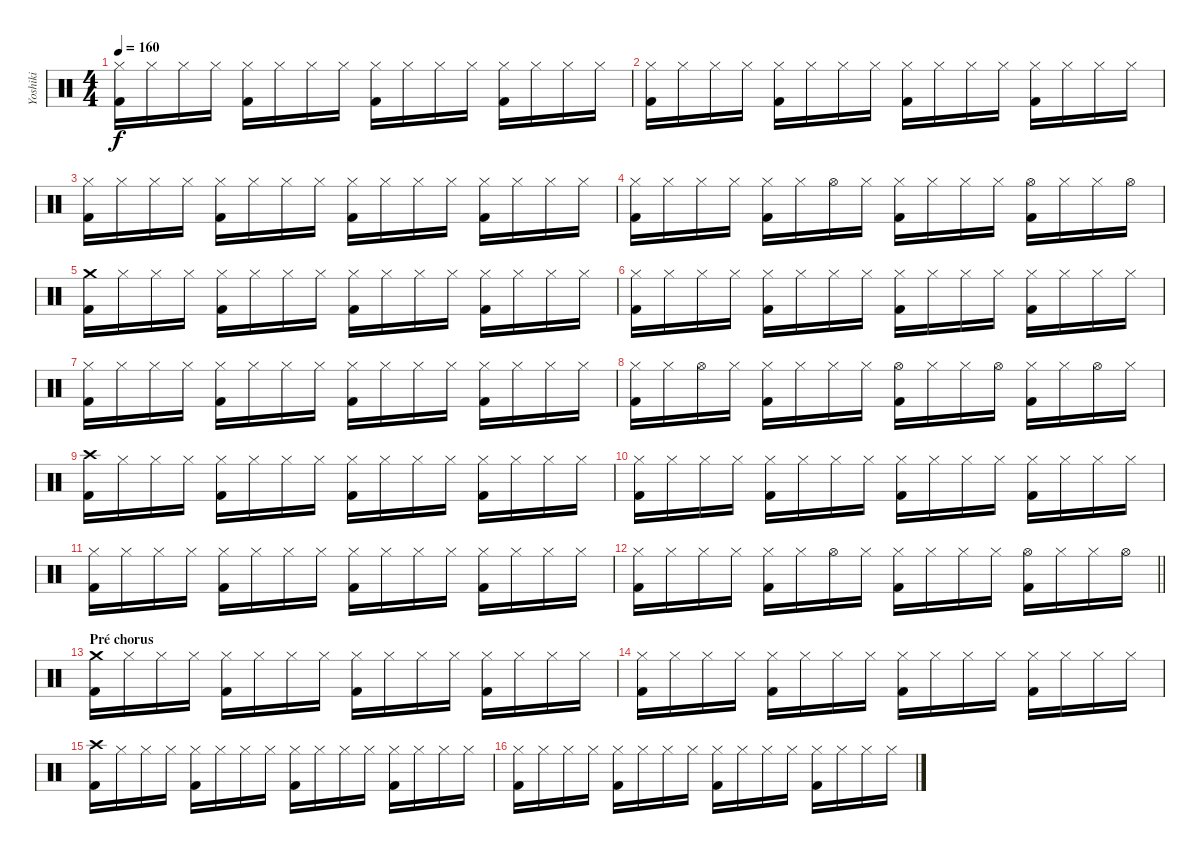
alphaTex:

\track ("Yoshiki" "Yoshiki") {instrument percussion}
\staff {score}
\articulation defaults
\ts (4 4)
\tempo 160
\clef neutral
\ks c
("Hi-Hat (closed)" "Kick (hit) 2").16{dy f} "Hi-Hat (closed)".16 "Hi-Hat (closed)".16 "Hi-Hat (closed)".16 ("Hi-Hat (closed)" "Kick (hit) 2").16 "Hi-Hat (closed)".16 "Hi-Hat (closed)".16 "Hi-Hat (closed)".16 ("Hi-Hat (closed)" "Kick (hit) 2").16 "Hi-Hat (closed)".16 "Hi-Hat (closed)".16 "Hi-Hat (closed)".16 ("Hi-Hat (closed)" "Kick (hit) 2").16 "Hi-Hat (closed)".16 "Hi-Hat (closed)".16 "Hi-Hat (closed)".16 |
("Hi-Hat (closed)" "Kick (hit) 2").16 "Hi-Hat (closed)".16 "Hi-Hat (closed)".16 "Hi-Hat (closed)".16 ("Hi-Hat (closed)" "Kick (hit) 2").16 "Hi-Hat (closed)".16 "Hi-Hat (closed)".16 "Hi-Hat (closed)".16 ("Hi-Hat (closed)" "Kick (hit) 2").16 "Hi-Hat (closed)".16 "Hi-Hat (closed)".16 "Hi-Hat (closed)".16 ("Hi-Hat (closed)" "Kick (hit) 2").16 "Hi-Hat (closed)".16 "Hi-Hat (closed)".16 "Hi-Hat (closed)".16 |
("Hi-Hat (closed)" "Kick (hit) 2").16 "Hi-Hat (closed)".16 "Hi-Hat (closed)".16 "Hi-Hat (closed)".16 ("Hi-Hat (closed)" "Kick (hit) 2").16 "Hi-Hat (closed)".16 "Hi-Hat (closed)".16 "Hi-Hat (closed)".16 ("Hi-Hat (closed)" "Kick (hit) 2").16 "Hi-Hat (closed)".16 "Hi-Hat (closed)".16 "Hi-Hat (closed)".16 ("Hi-Hat (closed)" "Kick (hit) 2").16 "Hi-Hat (closed)".16 "Hi-Hat (closed)".16 "Hi-Hat (closed)".16 |
("Hi-Hat (closed)" "Kick (hit) 2").16 "Hi-Hat (closed)".16 "Hi-Hat (closed)".16 "Hi-Hat (closed)".16 ("Hi-Hat (closed)" "Kick (hit) 2").16 "Hi-Hat (closed)".16 "Hi-Hat (open)".16 "Hi-Hat (closed)".16 ("Hi-Hat (closed)" "Kick (hit) 2").16 "Hi-Hat (closed)".16 "Hi-Hat (closed)".16 "Hi-Hat (closed)".16 ("Hi-Hat (open)" "Kick (hit) 2").16 "Hi-Hat (closed)".16 "Hi-Hat (closed)".16 "Hi-Hat (open)".16 |
("Crash medium (hit)" "Kick (hit) 2").16 "Hi-Hat (closed)".16 "Hi-Hat (closed)".16 "Hi-Hat (closed)".16 ("Hi-Hat (closed)" "Kick (hit) 2").16 "Hi-Hat (closed)".16 "Hi-Hat (closed)".16 "Hi-Hat (closed)".16 ("Hi-Hat (closed)" "Kick (hit) 2").16 "Hi-Hat (closed)".16 "Hi-Hat (closed)".16 "Hi-Hat (closed)".16 ("Hi-Hat (closed)" "Kick (hit) 2").16 "Hi-Hat (closed)".16 "Hi-Hat (closed)".16 "Hi-Hat (closed)".16 |
("Hi-Hat (closed)" "Kick (hit) 2").16 "Hi-Hat (closed)".16 "Hi-Hat (closed)".16 "Hi-Hat (closed)".16 ("Hi-Hat (closed)" "Kick (hit) 2").16 "Hi-Hat (closed)".16 "Hi-Hat (closed)".16 "Hi-Hat (closed)".16 ("Hi-Hat (closed)" "Kick (hit) 2").16 "Hi-Hat (closed)".16 "Hi-Hat (closed)".16 "Hi-Hat (closed)".16 ("Hi-Hat (closed)" "Kick (hit) 2").16 "Hi-Hat (closed)".16 "Hi-Hat (closed)".16 "Hi-Hat (closed)".16 |
("Hi-Hat (closed)" "Kick (hit) 2").16 "Hi-Hat (closed)".16 "Hi-Hat (closed)".16 "Hi-Hat (closed)".16 ("Hi-Hat (closed)" "Kick (hit) 2").16 "Hi-Hat (closed)".16 "Hi-Hat (closed)".16 "Hi-Hat (closed)".16 ("Hi-Hat (closed)" "Kick (hit) 2").16 "Hi-Hat (closed)".16 "Hi-Hat (closed)".16 "Hi-Hat (closed)".16 ("Hi-Hat (closed)" "Kick (hit) 2").16 "Hi-Hat (closed)".16 "Hi-Hat (closed)".16 "Hi-Hat (closed)".16 |
("Hi-Hat (closed)" "Kick (hit) 2").16 "Hi-Hat (closed)".16 "Hi-Hat (open)".16 "Hi-Hat (closed)".16 ("Hi-Hat (closed)" "Kick (hit) 2").16 "Hi-Hat (closed)".16 "Hi-Hat (closed)".16 "Hi-Hat (closed)".16 ("Hi-Hat (open)" "Kick (hit) 2").16 "Hi-Hat (closed)".16 "Hi-Hat (closed)".16 "Hi-Hat (open)".16 ("Hi-Hat (closed)" "Kick (hit) 2").16 "Hi-Hat (closed)".16 "Hi-Hat (open)".16 "Hi-Hat (closed)".16 |
("Crash high (hit)" "Kick (hit) 2").16 "Hi-Hat (closed)".16 "Hi-Hat (closed)".16 "Hi-Hat (closed)".16 ("Hi-Hat (closed)" "Kick (hit) 2").16 "Hi-Hat (closed)".16 "Hi-Hat (closed)".16 "Hi-Hat (closed)".16 ("Hi-Hat (closed)" "Kick (hit) 2").16 "Hi-Hat (closed)".16 "Hi-Hat (closed)".16 "Hi-Hat (closed)".16 ("Hi-Hat (closed)" "Kick (hit) 2").16 "Hi-Hat (closed)".16 "Hi-Hat (closed)".16 "Hi-Hat (closed)".16 |
("Hi-Hat (closed)" "Kick (hit) 2").16 "Hi-Hat (closed)".16 "Hi-Hat (closed)".16 "Hi-Hat (closed)".16 ("Hi-Hat (closed)" "Kick (hit) 2").16 "Hi-Hat (closed)".16 "Hi-Hat (closed)".16 "Hi-Hat (closed)".16 ("Hi-Hat (closed)" "Kick (hit) 2").16 "Hi-Hat (closed)".16 "Hi-Hat (closed)".16 "Hi-Hat (closed)".16 ("Hi-Hat (closed)" "Kick (hit) 2").16 "Hi-Hat (closed)".16 "Hi-Hat (closed)".16 "Hi-Hat (closed)".16 |
("Hi-Hat (closed)" "Kick (hit) 2").16 "Hi-Hat (closed)".16 "Hi-Hat (closed)".16 "Hi-Hat (closed)".16 ("Hi-Hat (closed)" "Kick (hit) 2").16 "Hi-Hat (closed)".16 "Hi-Hat (closed)".16 "Hi-Hat (closed)".16 ("Hi-Hat (closed)" "Kick (hit) 2").16 "Hi-Hat (closed)".16 "Hi-Hat (closed)".16 "Hi-Hat (closed)".16 ("Hi-Hat (closed)" "Kick (hit) 2").16 "Hi-Hat (closed)".16 "Hi-Hat (closed)".16 "Hi-Hat (closed)".16 |
\barLineRight lightlight
("Hi-Hat (closed)" "Kick (hit) 2").16 "Hi-Hat (closed)".16 "Hi-Hat (closed)".16 "Hi-Hat (closed)".16 ("Hi-Hat (closed)" "Kick (hit) 2").16 "Hi-Hat (closed)".16 "Hi-Hat (open)".16 "Hi-Hat (closed)".16 ("Hi-Hat (closed)" "Kick (hit) 2").16 "Hi-Hat (closed)".16 "Hi-Hat (closed)".16 "Hi-Hat (closed)".16 ("Hi-Hat (open)" "Kick (hit) 2").16 "Hi-Hat (closed)".16 "Hi-Hat (closed)".16 "Hi-Hat (open)".16 |
\section ("" "Pré chorus")
("Crash medium (hit)" "Kick (hit) 2").16 "Hi-Hat (closed)".16 "Hi-Hat (closed)".16 "Hi-Hat (closed)".16 ("Hi-Hat (closed)" "Kick (hit) 2").16 "Hi-Hat (closed)".16 "Hi-Hat (closed)".16 "Hi-Hat (closed)".16 ("Hi-Hat (closed)" "Kick (hit) 2").16 "Hi-Hat (closed)".16 "Hi-Hat (closed)".16 "Hi-Hat (closed)".16 ("Hi-Hat (closed)" "Kick (hit) 2").16 "Hi-Hat (closed)".16 "Hi-Hat (closed)".16 "Hi-Hat (closed)".16 |
("Hi-Hat (closed)" "Kick (hit) 2").16 "Hi-Hat (closed)".16 "Hi-Hat (closed)".16 "Hi-Hat (closed)".16 ("Hi-Hat (closed)" "Kick (hit) 2").16 "Hi-Hat (closed)".16 "Hi-Hat (closed)".16 "Hi-Hat (closed)".16 ("Hi-Hat (closed)" "Kick (hit) 2").16 "Hi-Hat (closed)".16 "Hi-Hat (closed)".16 "Hi-Hat (closed)".16 ("Hi-Hat (closed)" "Kick (hit) 2").16 "Hi-Hat (closed)".16 "Hi-Hat (closed)".16 "Hi-Hat (closed)".16 |
("Crash high (hit)" "Kick (hit) 2").16 "Hi-Hat (closed)".16 "Hi-Hat (closed)".16 "Hi-Hat (closed)".16 ("Hi-Hat (closed)" "Kick (hit) 2").16 "Hi-Hat (closed)".16 "Hi-Hat (closed)".16 "Hi-Hat (closed)".16 ("Hi-Hat (closed)" "Kick (hit) 2").16 "Hi-Hat (closed)".16 "Hi-Hat (closed)".16 "Hi-Hat (closed)".16 ("Hi-Hat (closed)" "Kick (hit) 2").16 "Hi-Hat (closed)".16 "Hi-Hat (closed)".16 "Hi-Hat (closed)".16 |
("Hi-Hat (closed)" "Kick (hit) 2").16 "Hi-Hat (closed)".16 "Hi-Hat (closed)".16 "Hi-Hat (closed)".16 ("Hi-Hat (closed)" "Kick (hit) 2").16 "Hi-Hat (closed)".16 "Hi-Hat (closed)".16 "Hi-Hat (closed)".16 ("Hi-Hat (closed)" "Kick (hit) 2").16 "Hi-Hat (closed)".16 "Hi-Hat (closed)".16 "Hi-Hat (closed)".16 ("Hi-Hat (closed)" "Kick (hit) 2").16 "Hi-Hat (closed)".16 "Hi-Hat (closed)".16 "Hi-Hat (closed)".16
